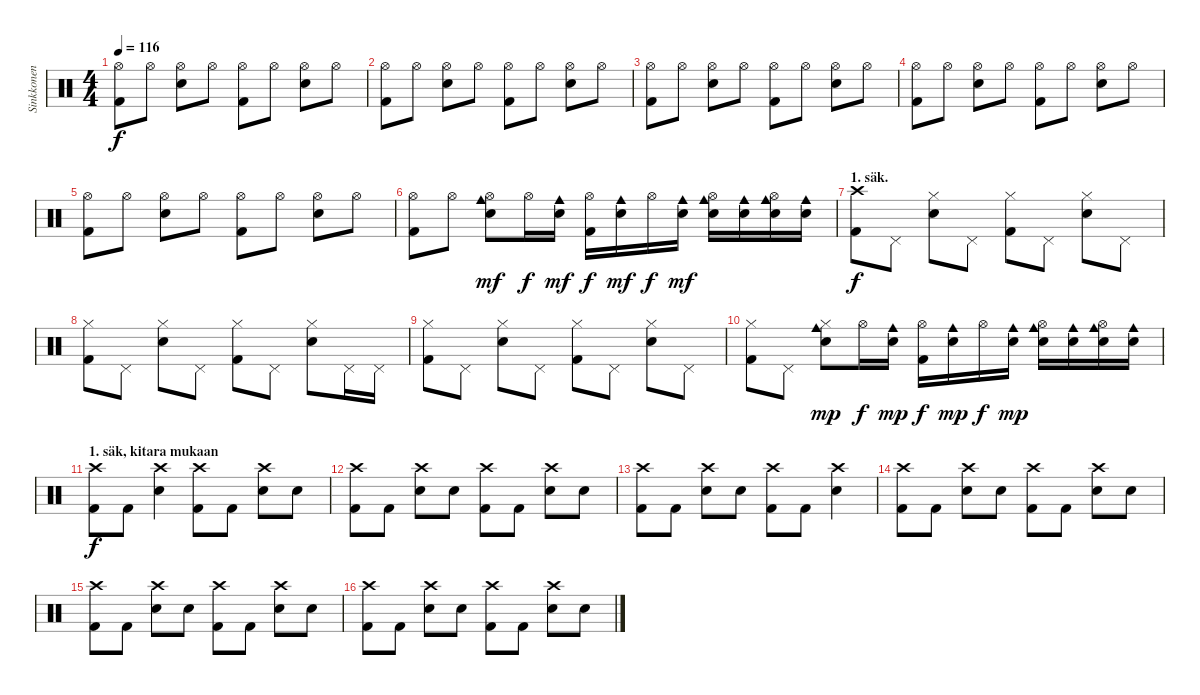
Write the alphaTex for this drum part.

\track ("Sinkkonen" "Sinkkonen") {instrument percussion}
\staff {score}
\articulation defaults
\ts (4 4)
\tempo 116
\clef neutral
\ks c
("Kick (hit) 2" "Hi-Hat (open)").8{dy f} "Hi-Hat (open)".8 ("Hi-Hat (open)" "Snare (hit) 2").8 "Hi-Hat (open)".8 ("Kick (hit) 2" "Hi-Hat (open)").8 "Hi-Hat (open)".8 ("Hi-Hat (open)" "Snare (hit) 2").8 "Hi-Hat (open)".8 |
("Kick (hit) 2" "Hi-Hat (open)").8 "Hi-Hat (open)".8 ("Hi-Hat (open)" "Snare (hit) 2").8 "Hi-Hat (open)".8 ("Kick (hit) 2" "Hi-Hat (open)").8 "Hi-Hat (open)".8 ("Hi-Hat (open)" "Snare (hit) 2").8 "Hi-Hat (open)".8 |
("Kick (hit) 2" "Hi-Hat (open)").8 "Hi-Hat (open)".8 ("Hi-Hat (open)" "Snare (hit) 2").8 "Hi-Hat (open)".8 ("Kick (hit) 2" "Hi-Hat (open)").8 "Hi-Hat (open)".8 ("Hi-Hat (open)" "Snare (hit) 2").8 "Hi-Hat (open)".8 |
("Kick (hit) 2" "Hi-Hat (open)").8 "Hi-Hat (open)".8 ("Hi-Hat (open)" "Snare (hit) 2").8 "Hi-Hat (open)".8 ("Kick (hit) 2" "Hi-Hat (open)").8 "Hi-Hat (open)".8 ("Hi-Hat (open)" "Snare (hit) 2").8 "Hi-Hat (open)".8 |
("Kick (hit) 2" "Hi-Hat (open)").8 "Hi-Hat (open)".8 ("Hi-Hat (open)" "Snare (hit) 2").8 "Hi-Hat (open)".8 ("Kick (hit) 2" "Hi-Hat (open)").8 "Hi-Hat (open)".8 ("Hi-Hat (open)" "Snare (hit) 2").8 "Hi-Hat (open)".8 |
("Kick (hit) 2" "Hi-Hat (open)").8 "Hi-Hat (open)".8 ("Hi-Hat (open)" "Snare (hit) 2" "Cowbell medium (hit)").8{dy mf} "Hi-Hat (open)".16{dy f} ("Snare (hit) 2" "Cowbell medium (hit)").16{dy mf} ("Kick (hit) 2" "Hi-Hat (open)").16{dy f} ("Snare (hit) 2" "Cowbell medium (hit)").16{dy mf} "Hi-Hat (open)".16{dy f} ("Snare (hit) 2" "Cowbell medium (hit)").16{dy mf} ("Hi-Hat (open)" "Snare (hit) 2" "Cowbell medium (hit)").16 ("Snare (hit) 2" "Cowbell medium (hit)").16 ("Hi-Hat (open)" "Snare (hit) 2" "Cowbell medium (hit)").16 ("Snare (hit) 2" "Cowbell medium (hit)").16 |
\section ("" "1. säk.")
("Kick (hit) 2" "Crash high (hit)").8{dy f} "Pedal Hi-Hat (hit)".8 ("Hi-Hat (closed)" "Snare (hit) 2").8 "Pedal Hi-Hat (hit)".8 ("Kick (hit) 2" "Hi-Hat (closed)").8 "Pedal Hi-Hat (hit)".8 ("Hi-Hat (closed)" "Snare (hit) 2").8 "Pedal Hi-Hat (hit)".8 |
("Kick (hit) 2" "Hi-Hat (closed)").8 "Pedal Hi-Hat (hit)".8 ("Hi-Hat (closed)" "Snare (hit) 2").8 "Pedal Hi-Hat (hit)".8 ("Kick (hit) 2" "Hi-Hat (closed)").8 "Pedal Hi-Hat (hit)".8 ("Hi-Hat (closed)" "Snare (hit) 2").8 "Pedal Hi-Hat (hit)".16 "Pedal Hi-Hat (hit)".16 |
("Kick (hit) 2" "Hi-Hat (closed)").8 "Pedal Hi-Hat (hit)".8 ("Hi-Hat (closed)" "Snare (hit) 2").8 "Pedal Hi-Hat (hit)".8 ("Kick (hit) 2" "Hi-Hat (closed)").8 "Pedal Hi-Hat (hit)".8 ("Hi-Hat (closed)" "Snare (hit) 2").8 "Pedal Hi-Hat (hit)".8 |
("Kick (hit) 2" "Hi-Hat (closed)").8 "Pedal Hi-Hat (hit)".8 ("Hi-Hat (closed)" "Snare (hit) 2" "Cowbell medium (hit)").8{dy mp} "Hi-Hat (open)".16{dy f} ("Snare (hit) 2" "Cowbell medium (hit)").16{dy mp} ("Kick (hit) 2" "Hi-Hat (open)").16{dy f} ("Snare (hit) 2" "Cowbell medium (hit)").16{dy mp} "Hi-Hat (open)".16{dy f} ("Snare (hit) 2" "Cowbell medium (hit)").16{dy mp} ("Hi-Hat (open)" "Snare (hit) 2" "Cowbell medium (hit)").16 ("Snare (hit) 2" "Cowbell medium (hit)").16 ("Hi-Hat (open)" "Snare (hit) 2" "Cowbell medium (hit)").16 ("Snare (hit) 2" "Cowbell medium (hit)").16 |
\section ("" "1. säk, kitara mukaan")
("Kick (hit) 2" "Crash high (hit)").8{dy f} "Kick (hit) 2".8 ("Crash high (hit)" "Snare (hit) 2").4 ("Kick (hit) 2" "Crash high (hit)").8 "Kick (hit) 2".8 ("Crash high (hit)" "Snare (hit) 2").8 "Snare (hit) 2".8 |
("Kick (hit) 2" "Crash high (hit)").8 "Kick (hit) 2".8 ("Crash high (hit)" "Snare (hit) 2").8 "Snare (hit) 2".8 ("Kick (hit) 2" "Crash high (hit)").8 "Kick (hit) 2".8 ("Crash high (hit)" "Snare (hit) 2").8 "Snare (hit) 2".8 |
("Kick (hit) 2" "Crash high (hit)").8 "Kick (hit) 2".8 ("Crash high (hit)" "Snare (hit) 2").8 "Snare (hit) 2".8 ("Kick (hit) 2" "Crash high (hit)").8 "Kick (hit) 2".8 ("Crash high (hit)" "Snare (hit) 2").4 |
("Kick (hit) 2" "Crash high (hit)").8 "Kick (hit) 2".8 ("Crash high (hit)" "Snare (hit) 2").8 "Snare (hit) 2".8 ("Kick (hit) 2" "Crash high (hit)").8 "Kick (hit) 2".8 ("Crash high (hit)" "Snare (hit) 2").8 "Snare (hit) 2".8 |
("Kick (hit) 2" "Crash high (hit)").8 "Kick (hit) 2".8 ("Crash high (hit)" "Snare (hit) 2").8 "Snare (hit) 2".8 ("Kick (hit) 2" "Crash high (hit)").8 "Kick (hit) 2".8 ("Crash high (hit)" "Snare (hit) 2").8 "Snare (hit) 2".8 |
("Kick (hit) 2" "Crash high (hit)").8 "Kick (hit) 2".8 ("Crash high (hit)" "Snare (hit) 2").8 "Snare (hit) 2".8 ("Kick (hit) 2" "Crash high (hit)").8 "Kick (hit) 2".8 ("Crash high (hit)" "Snare (hit) 2").8 "Snare (hit) 2".8
